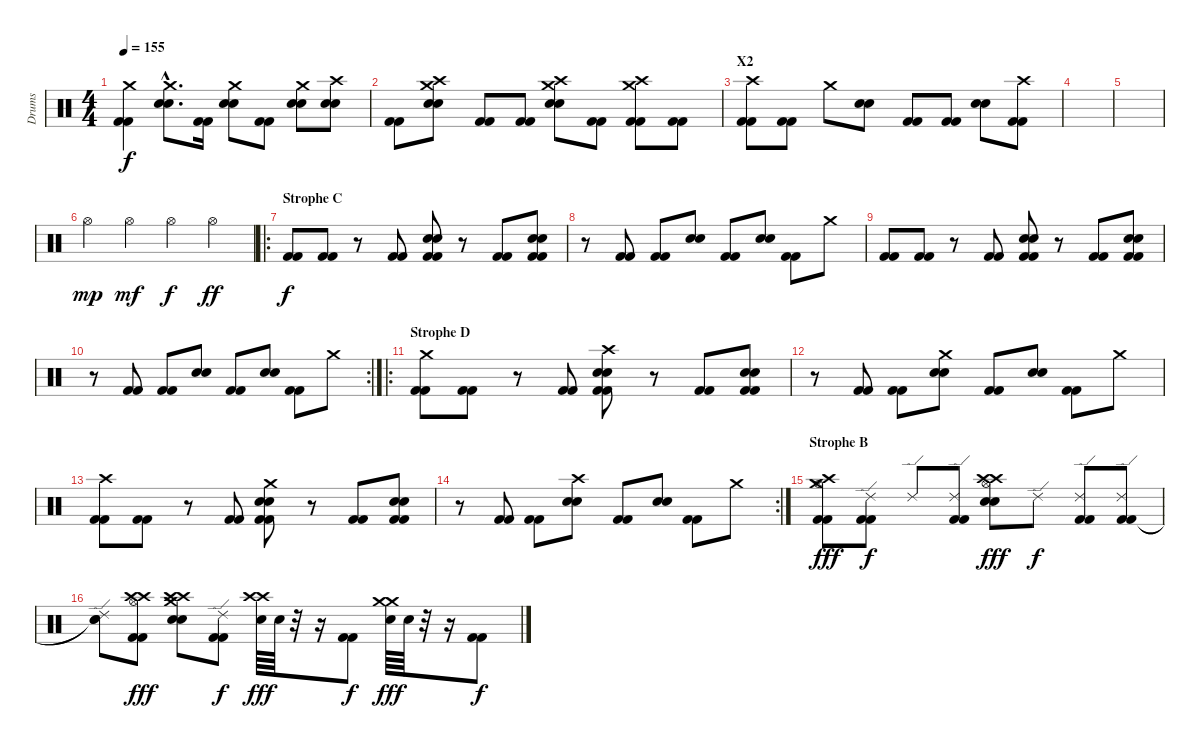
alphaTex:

\track ("Drums" "Drums") {instrument percussion}
\staff {score}
\articulation defaults
\ts (4 4)
\tempo 155
\clef neutral
\ks c
("Crash medium (hit)" "Kick (hit) 2" "Kick (hit) 2").4{dy f} ("Crash medium (hit)"{hac} "Snare (hit) 2"{hac} "Electric Snare (hit)"{hac}).8{d} ("Kick (hit) 2" "Kick (hit) 2").16 ("Crash medium (hit)" "Snare (hit) 2" "Electric Snare (hit)").8 ("Kick (hit) 2" "Kick (hit) 2").8 ("Crash medium (hit)" "Snare (hit) 2" "Electric Snare (hit)").8 ("Crash high (hit)" "Snare (hit) 2" "Electric Snare (hit)").8 |
("Kick (hit) 2" "Kick (hit) 2").8 ("Crash high (hit)" "Crash medium (hit)" "Snare (hit) 2" "Electric Snare (hit)").8 ("Kick (hit) 2" "Kick (hit) 2").8 ("Kick (hit) 2" "Kick (hit) 2").8 ("Crash high (hit)" "Crash medium (hit)" "Snare (hit) 2" "Electric Snare (hit)").8 ("Kick (hit) 2" "Kick (hit) 2").8 ("Crash medium (hit)" "Crash high (hit)" "Kick (hit) 2" "Kick (hit) 2").8 ("Kick (hit) 2" "Kick (hit) 2").8 |
\section ("" "X2")
("Crash high (hit)" "Kick (hit) 2" "Kick (hit) 2").8 ("Kick (hit) 2" "Kick (hit) 2").8 "Crash medium (hit)".8 ("Electric Snare (hit)" "Snare (hit) 2").8 ("Kick (hit) 2" "Kick (hit) 2").8 ("Kick (hit) 2" "Kick (hit) 2").8 ("Electric Snare (hit)" "Snare (hit) 2").8 ("Crash high (hit)" "Kick (hit) 2" "Kick (hit) 2").8 |
|
|
"Hi-Hat (open)".4{dy mp} "Hi-Hat (open)".4{dy mf} "Hi-Hat (open)".4{dy f} "Hi-Hat (open)".4{dy ff} |
\ro
\section ("" "Strophe C")
("Kick (hit) 2" "Kick (hit) 2").8{dy f} ("Kick (hit) 2" "Kick (hit) 2").8 r.8 ("Kick (hit) 2" "Kick (hit) 2").8 ("Electric Snare (hit)" "Snare (hit) 2" "Kick (hit) 2" "Kick (hit) 2").8 r.8 ("Kick (hit) 2" "Kick (hit) 2").8 ("Electric Snare (hit)" "Snare (hit) 2" "Kick (hit) 2" "Kick (hit) 2").8 |
r.8 ("Kick (hit) 2" "Kick (hit) 2").8 ("Kick (hit) 2" "Kick (hit) 2").8 ("Electric Snare (hit)" "Snare (hit) 2").8 ("Kick (hit) 2" "Kick (hit) 2").8 ("Electric Snare (hit)" "Snare (hit) 2").8 ("Kick (hit) 2" "Kick (hit) 2").8 "Crash medium (hit)".8 |
("Kick (hit) 2" "Kick (hit) 2").8 ("Kick (hit) 2" "Kick (hit) 2").8 r.8 ("Kick (hit) 2" "Kick (hit) 2").8 ("Electric Snare (hit)" "Snare (hit) 2" "Kick (hit) 2" "Kick (hit) 2").8 r.8 ("Kick (hit) 2" "Kick (hit) 2").8 ("Electric Snare (hit)" "Snare (hit) 2" "Kick (hit) 2" "Kick (hit) 2").8 |
\rc 2
r.8 ("Kick (hit) 2" "Kick (hit) 2").8 ("Kick (hit) 2" "Kick (hit) 2").8 ("Electric Snare (hit)" "Snare (hit) 2").8 ("Kick (hit) 2" "Kick (hit) 2").8 ("Electric Snare (hit)" "Snare (hit) 2").8 ("Kick (hit) 2" "Kick (hit) 2").8 "Crash medium (hit)".8 |
\ro
\section ("" "Strophe D")
("Crash medium (hit)" "Kick (hit) 2" "Kick (hit) 2").8 ("Kick (hit) 2" "Kick (hit) 2").8 r.8 ("Kick (hit) 2" "Kick (hit) 2").8 ("Crash high (hit)" "Electric Snare (hit)" "Snare (hit) 2" "Kick (hit) 2" "Kick (hit) 2").8 r.8 ("Kick (hit) 2" "Kick (hit) 2").8 ("Electric Snare (hit)" "Snare (hit) 2" "Kick (hit) 2" "Kick (hit) 2").8 |
r.8 ("Kick (hit) 2" "Kick (hit) 2").8 ("Kick (hit) 2" "Kick (hit) 2").8 ("Crash medium (hit)" "Electric Snare (hit)" "Snare (hit) 2").8 ("Kick (hit) 2" "Kick (hit) 2").8 ("Electric Snare (hit)" "Snare (hit) 2").8 ("Kick (hit) 2" "Kick (hit) 2").8 "Crash medium (hit)".8 |
("Crash high (hit)" "Kick (hit) 2" "Kick (hit) 2").8 ("Kick (hit) 2" "Kick (hit) 2").8 r.8 ("Kick (hit) 2" "Kick (hit) 2").8 ("Crash medium (hit)" "Electric Snare (hit)" "Snare (hit) 2" "Kick (hit) 2" "Kick (hit) 2").8 r.8 ("Kick (hit) 2" "Kick (hit) 2").8 ("Electric Snare (hit)" "Snare (hit) 2" "Kick (hit) 2" "Kick (hit) 2").8 |
\rc 2
r.8 ("Kick (hit) 2" "Kick (hit) 2").8 ("Kick (hit) 2" "Kick (hit) 2").8 ("Crash high (hit)" "Electric Snare (hit)" "Snare (hit) 2").8 ("Kick (hit) 2" "Kick (hit) 2").8 ("Electric Snare (hit)" "Snare (hit) 2").8 ("Kick (hit) 2" "Kick (hit) 2").8 "Crash medium (hit)".8 |
\section ("" "Strophe B")
("Crash high (hit)" "Crash medium (hit)" "Hi-Hat (open)" "Kick (hit) 2" "Kick (hit) 2").8{dy fff} ("Ride (edge) 2" "Kick (hit) 2" "Kick (hit) 2").8{dy f} "Ride (edge) 2".8 ("Ride (edge) 2" "Kick (hit) 2" "Kick (hit) 2").8 ("Crash high (hit)" "Crash high (hit)" "Hi-Hat (open)" "Snare (hit) 2" "Electric Snare (hit)").8{dy fff} "Ride (edge) 2".8{dy f} ("Ride (edge) 2" "Kick (hit) 2" "Kick (hit) 2").8 ("Ride (edge) 2" "Kick (hit) 2" "Kick (hit) 2").8 |
("Ride (edge) 2" "Snare (hit)"{t} "Snare (hit)"{t}).8 ("Crash high (hit)" "Crash high (hit)" "Hi-Hat (open)" "Kick (hit) 2" "Kick (hit) 2").8{dy fff} ("Crash high (hit)" "Crash high (hit)" "Crash medium (hit)" "Electric Snare (hit)" "Snare (hit) 2").8 ("Ride (edge) 2" "Kick (hit) 2" "Kick (hit) 2").8{dy f} ("Crash high (hit)" "Crash high (hit)" "Snare (hit) 2").64{dy fff} "Electric Snare (hit)".64 r.32 r.16 ("Kick (hit) 2" "Kick (hit) 2").8{dy f} ("Crash medium (hit)" "Crash medium (hit)" "Snare (hit) 2").64{dy fff} "Electric Snare (hit)".64 r.32 r.16 ("Kick (hit) 2" "Kick (hit) 2").8{dy f}
